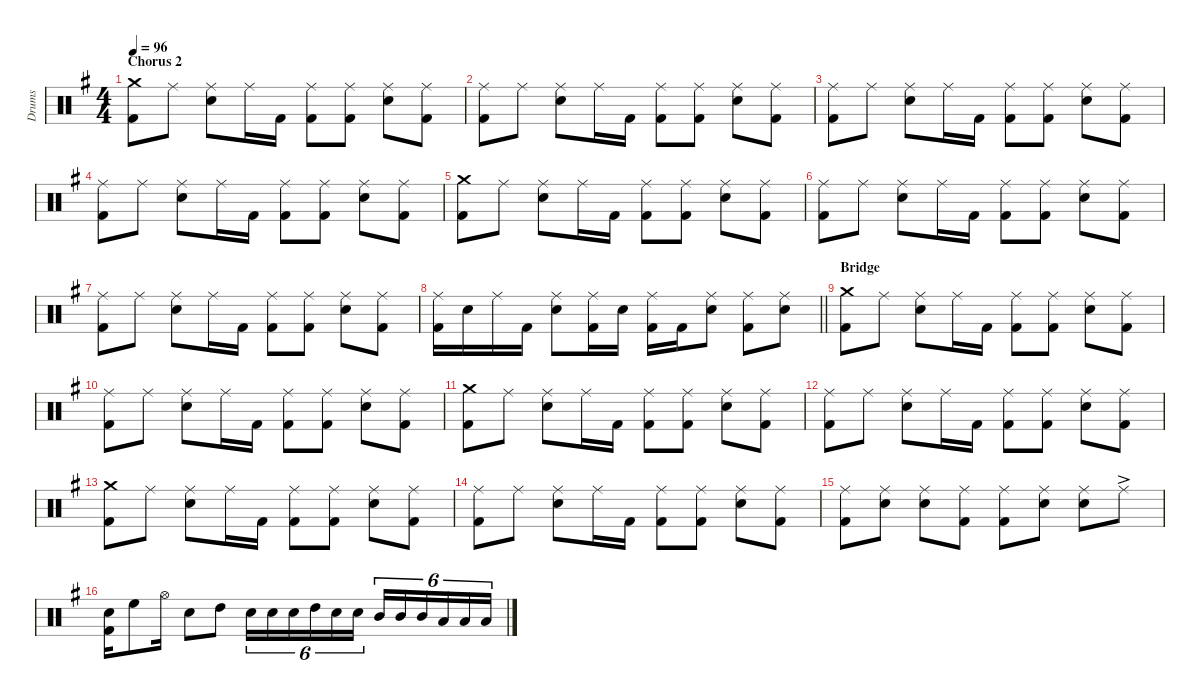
\defaultSystemsLayout 4
\hideDynamics
\bracketExtendMode nobrackets
\otherSystemsTrackNameOrientation horizontal
\track ("Drumkit" "Drums") {instrument percussion}
\staff {score}
\articulation defaults
\ts (4 4)
\section ("" "Chorus 2")
\tempo 96
\clef neutral
\ks g
("Crash medium (hit)"{acc forcenatural} "Kick (hit) 2"{acc forcenatural}).8{dy f beam Down} "Ride (middle)"{acc forcenatural}.8{beam Down} ("Snare (hit) 2"{acc forcenatural} "Ride (middle)"{acc forcenatural}).8{beam Down} "Ride (middle)"{acc forcenatural}.16{beam Down} "Kick (hit) 2"{acc forcenatural}.16{beam Down} ("Kick (hit) 2"{acc forcenatural} "Ride (middle)"{acc forcenatural}).8{beam Down} ("Kick (hit) 2"{acc forcenatural} "Ride (middle)"{acc forcenatural}).8{beam Down} ("Snare (hit) 2"{acc forcenatural} "Ride (middle)"{acc forcenatural}).8{beam Down} ("Kick (hit) 2"{acc forcenatural} "Ride (middle)"{acc forcenatural}).8{beam Down} |
("Kick (hit) 2"{acc forcenatural} "Ride (middle)"{acc forcenatural}).8{beam Down} "Ride (middle)"{acc forcenatural}.8{beam Down} ("Snare (hit) 2"{acc forcenatural} "Ride (middle)"{acc forcenatural}).8{beam Down} "Ride (middle)"{acc forcenatural}.16{beam Down} "Kick (hit) 2"{acc forcenatural}.16{beam Down} ("Kick (hit) 2"{acc forcenatural} "Ride (middle)"{acc forcenatural}).8{beam Down} ("Kick (hit) 2"{acc forcenatural} "Ride (middle)"{acc forcenatural}).8{beam Down} ("Snare (hit) 2"{acc forcenatural} "Ride (middle)"{acc forcenatural}).8{beam Down} ("Kick (hit) 2"{acc forcenatural} "Ride (middle)"{acc forcenatural}).8{beam Down} |
("Kick (hit) 2"{acc forcenatural} "Ride (middle)"{acc forcenatural}).8{beam Down} "Ride (middle)"{acc forcenatural}.8{beam Down} ("Snare (hit) 2"{acc forcenatural} "Ride (middle)"{acc forcenatural}).8{beam Down} "Ride (middle)"{acc forcenatural}.16{beam Down} "Kick (hit) 2"{acc forcenatural}.16{beam Down} ("Kick (hit) 2"{acc forcenatural} "Ride (middle)"{acc forcenatural}).8{beam Down} ("Kick (hit) 2"{acc forcenatural} "Ride (middle)"{acc forcenatural}).8{beam Down} ("Snare (hit) 2"{acc forcenatural} "Ride (middle)"{acc forcenatural}).8{beam Down} ("Kick (hit) 2"{acc forcenatural} "Ride (middle)"{acc forcenatural}).8{beam Down} |
("Kick (hit) 2"{acc forcenatural} "Ride (middle)"{acc forcenatural}).8{beam Down} "Ride (middle)"{acc forcenatural}.8{beam Down} ("Snare (hit) 2"{acc forcenatural} "Ride (middle)"{acc forcenatural}).8{beam Down} "Ride (middle)"{acc forcenatural}.16{beam Down} "Kick (hit) 2"{acc forcenatural}.16{beam Down} ("Kick (hit) 2"{acc forcenatural} "Ride (middle)"{acc forcenatural}).8{beam Down} ("Kick (hit) 2"{acc forcenatural} "Ride (middle)"{acc forcenatural}).8{beam Down} ("Snare (hit) 2"{acc forcenatural} "Ride (middle)"{acc forcenatural}).8{beam Down} ("Kick (hit) 2"{acc forcenatural} "Ride (middle)"{acc forcenatural}).8{beam Down} |
("Kick (hit) 2"{acc forcenatural} "Crash medium (hit)"{acc forcenatural}).8{beam Down} "Ride (middle)"{acc forcenatural}.8{beam Down} ("Snare (hit) 2"{acc forcenatural} "Ride (middle)"{acc forcenatural}).8{beam Down} "Ride (middle)"{acc forcenatural}.16{beam Down} "Kick (hit) 2"{acc forcenatural}.16{beam Down} ("Kick (hit) 2"{acc forcenatural} "Ride (middle)"{acc forcenatural}).8{beam Down} ("Kick (hit) 2"{acc forcenatural} "Ride (middle)"{acc forcenatural}).8{beam Down} ("Snare (hit) 2"{acc forcenatural} "Ride (middle)"{acc forcenatural}).8{beam Down} ("Kick (hit) 2"{acc forcenatural} "Ride (middle)"{acc forcenatural}).8{beam Down} |
("Kick (hit) 2"{acc forcenatural} "Ride (middle)"{acc forcenatural}).8{beam Down} "Ride (middle)"{acc forcenatural}.8{beam Down} ("Snare (hit) 2"{acc forcenatural} "Ride (middle)"{acc forcenatural}).8{beam Down} "Ride (middle)"{acc forcenatural}.16{beam Down} "Kick (hit) 2"{acc forcenatural}.16{beam Down} ("Kick (hit) 2"{acc forcenatural} "Ride (middle)"{acc forcenatural}).8{beam Down} ("Kick (hit) 2"{acc forcenatural} "Ride (middle)"{acc forcenatural}).8{beam Down} ("Snare (hit) 2"{acc forcenatural} "Ride (middle)"{acc forcenatural}).8{beam Down} ("Kick (hit) 2"{acc forcenatural} "Ride (middle)"{acc forcenatural}).8{beam Down} |
("Kick (hit) 2"{acc forcenatural} "Ride (middle)"{acc forcenatural}).8{beam Down} "Ride (middle)"{acc forcenatural}.8{beam Down} ("Snare (hit) 2"{acc forcenatural} "Ride (middle)"{acc forcenatural}).8{beam Down} "Ride (middle)"{acc forcenatural}.16{beam Down} "Kick (hit) 2"{acc forcenatural}.16{beam Down} ("Kick (hit) 2"{acc forcenatural} "Ride (middle)"{acc forcenatural}).8{beam Down} ("Kick (hit) 2"{acc forcenatural} "Ride (middle)"{acc forcenatural}).8{beam Down} ("Snare (hit) 2"{acc forcenatural} "Ride (middle)"{acc forcenatural}).8{beam Down} ("Kick (hit) 2"{acc forcenatural} "Ride (middle)"{acc forcenatural}).8{beam Down} |
\barLineRight lightlight
("Kick (hit) 2"{acc forcenatural} "Ride (middle)"{acc forcenatural}).16{beam Down} "Snare (hit) 2"{acc forcenatural}.16{beam Down} "Ride (middle)"{acc forcenatural}.16{beam Down} "Kick (hit) 2"{acc forcenatural}.16{beam Down} ("Snare (hit) 2"{acc forcenatural} "Ride (middle)"{acc forcenatural}).8{beam Down} ("Kick (hit) 2"{acc forcenatural} "Ride (middle)"{acc forcenatural}).16{beam Down} "Snare (hit) 2"{acc forcenatural}.16{beam Down} ("Kick (hit) 2"{acc forcenatural} "Ride (middle)"{acc forcenatural}).16{beam Down} "Kick (hit) 2"{acc forcenatural}.16{beam Down} ("Snare (hit) 2"{acc forcenatural} "Ride (middle)"{acc forcenatural}).8{beam Down} ("Kick (hit) 2"{acc forcenatural} "Ride (middle)"{acc forcenatural}).8{beam Down} ("Snare (hit) 2"{acc forcenatural} "Ride (middle)"{acc forcenatural}).8{beam Down} |
\section ("" "Bridge")
("Crash medium (hit)"{acc forcenatural} "Kick (hit) 2"{acc forcenatural}).8{beam Down} "Ride (middle)"{acc forcenatural}.8{beam Down} ("Snare (hit) 2"{acc forcenatural} "Ride (middle)"{acc forcenatural}).8{beam Down} "Ride (middle)"{acc forcenatural}.16{beam Down} "Kick (hit) 2"{acc forcenatural}.16{beam Down} ("Kick (hit) 2"{acc forcenatural} "Ride (middle)"{acc forcenatural}).8{beam Down} ("Kick (hit) 2"{acc forcenatural} "Ride (middle)"{acc forcenatural}).8{beam Down} ("Snare (hit) 2"{acc forcenatural} "Ride (middle)"{acc forcenatural}).8{beam Down} ("Kick (hit) 2"{acc forcenatural} "Ride (middle)"{acc forcenatural}).8{beam Down} |
("Kick (hit) 2"{acc forcenatural} "Ride (middle)"{acc forcenatural}).8{beam Down} "Ride (middle)"{acc forcenatural}.8{beam Down} ("Snare (hit) 2"{acc forcenatural} "Ride (middle)"{acc forcenatural}).8{beam Down} "Ride (middle)"{acc forcenatural}.16{beam Down} "Kick (hit) 2"{acc forcenatural}.16{beam Down} ("Kick (hit) 2"{acc forcenatural} "Ride (middle)"{acc forcenatural}).8{beam Down} ("Kick (hit) 2"{acc forcenatural} "Ride (middle)"{acc forcenatural}).8{beam Down} ("Snare (hit) 2"{acc forcenatural} "Ride (middle)"{acc forcenatural}).8{beam Down} ("Kick (hit) 2"{acc forcenatural} "Ride (middle)"{acc forcenatural}).8{beam Down} |
("Kick (hit) 2"{acc forcenatural} "Crash medium (hit)"{acc forcenatural}).8{beam Down} "Ride (middle)"{acc forcenatural}.8{beam Down} ("Snare (hit) 2"{acc forcenatural} "Ride (middle)"{acc forcenatural}).8{beam Down} "Ride (middle)"{acc forcenatural}.16{beam Down} "Kick (hit) 2"{acc forcenatural}.16{beam Down} ("Kick (hit) 2"{acc forcenatural} "Ride (middle)"{acc forcenatural}).8{beam Down} ("Kick (hit) 2"{acc forcenatural} "Ride (middle)"{acc forcenatural}).8{beam Down} ("Snare (hit) 2"{acc forcenatural} "Ride (middle)"{acc forcenatural}).8{beam Down} ("Kick (hit) 2"{acc forcenatural} "Ride (middle)"{acc forcenatural}).8{beam Down} |
("Kick (hit) 2"{acc forcenatural} "Ride (middle)"{acc forcenatural}).8{beam Down} "Ride (middle)"{acc forcenatural}.8{beam Down} ("Snare (hit) 2"{acc forcenatural} "Ride (middle)"{acc forcenatural}).8{beam Down} "Ride (middle)"{acc forcenatural}.16{beam Down} "Kick (hit) 2"{acc forcenatural}.16{beam Down} ("Kick (hit) 2"{acc forcenatural} "Ride (middle)"{acc forcenatural}).8{beam Down} ("Kick (hit) 2"{acc forcenatural} "Ride (middle)"{acc forcenatural}).8{beam Down} ("Snare (hit) 2"{acc forcenatural} "Ride (middle)"{acc forcenatural}).8{beam Down} ("Kick (hit) 2"{acc forcenatural} "Ride (middle)"{acc forcenatural}).8{beam Down} |
("Kick (hit) 2"{acc forcenatural} "Crash medium (hit)"{acc forcenatural}).8{beam Down} "Ride (middle)"{acc forcenatural}.8{beam Down} ("Snare (hit) 2"{acc forcenatural} "Ride (middle)"{acc forcenatural}).8{beam Down} "Ride (middle)"{acc forcenatural}.16{beam Down} "Kick (hit) 2"{acc forcenatural}.16{beam Down} ("Kick (hit) 2"{acc forcenatural} "Ride (middle)"{acc forcenatural}).8{beam Down} ("Kick (hit) 2"{acc forcenatural} "Ride (middle)"{acc forcenatural}).8{beam Down} ("Snare (hit) 2"{acc forcenatural} "Ride (middle)"{acc forcenatural}).8{beam Down} ("Kick (hit) 2"{acc forcenatural} "Ride (middle)"{acc forcenatural}).8{beam Down} |
("Kick (hit) 2"{acc forcenatural} "Ride (middle)"{acc forcenatural}).8{beam Down} "Ride (middle)"{acc forcenatural}.8{beam Down} ("Snare (hit) 2"{acc forcenatural} "Ride (middle)"{acc forcenatural}).8{beam Down} "Ride (middle)"{acc forcenatural}.16{beam Down} "Kick (hit) 2"{acc forcenatural}.16{beam Down} ("Kick (hit) 2"{acc forcenatural} "Ride (middle)"{acc forcenatural}).8{beam Down} ("Kick (hit) 2"{acc forcenatural} "Ride (middle)"{acc forcenatural}).8{beam Down} ("Snare (hit) 2"{acc forcenatural} "Ride (middle)"{acc forcenatural}).8{beam Down} ("Kick (hit) 2"{acc forcenatural} "Ride (middle)"{acc forcenatural}).8{beam Down} |
("Kick (hit) 2"{acc forcenatural} "Ride (middle)"{acc forcenatural}).8{beam Down} ("Snare (hit) 2"{acc forcenatural} "Ride (middle)"{acc forcenatural}).8{beam Down} ("Snare (hit) 2"{acc forcenatural} "Ride (middle)"{acc forcenatural}).8{beam Down} ("Kick (hit) 2"{acc forcenatural} "Ride (middle)"{acc forcenatural}).8{beam Down} ("Kick (hit) 2"{acc forcenatural} "Ride (middle)"{acc forcenatural}).8{beam Down} ("Snare (hit) 2"{acc forcenatural} "Ride (middle)"{acc forcenatural}).8{beam Down} ("Snare (hit) 2"{acc forcenatural} "Ride (middle)"{acc forcenatural}).8{beam Down} "Ride (middle)"{ac acc forcenatural}.8{beam Down} |
("Snare (hit) 2"{acc forcenatural} "Kick (hit) 2"{acc forcenatural}).16{beam Down} "High Floor Tom (hit)"{acc forcenatural}.8{beam Down} "Hi-Hat (open)"{acc forcenatural}.16{beam Down} "Snare (hit) 2"{acc forcenatural}.8{beam Down} "High Tom (hit)"{acc forcenatural}.8{beam Down} "Snare (hit) 2"{acc forcenatural}.16{tu (6 4) beam Down} "Snare (hit) 2"{acc forcenatural}.16{tu (6 4) beam Down} "Snare (hit) 2"{acc forcenatural}.16{tu (6 4) beam Down} "High Tom (hit)"{acc forcenatural}.16{tu (6 4) beam Down} "Snare (hit) 2"{acc forcenatural}.16{tu (6 4) beam Down} "Snare (hit) 2"{acc forcenatural}.16{tu (6 4) beam Down} "Mid Tom (hit)"{acc forcenatural}.16{tu (6 4) beam Up} "Mid Tom (hit)"{acc forcenatural}.16{tu (6 4) beam Up} "Mid Tom (hit)"{acc forcenatural}.16{tu (6 4) beam Up} "Low Tom (hit)"{acc forcenatural}.16{tu (6 4) beam Up} "Low Tom (hit)"{acc forcenatural}.16{tu (6 4) beam Up} "Low Tom (hit)"{acc forcenatural}.16{tu (6 4) beam Up}
